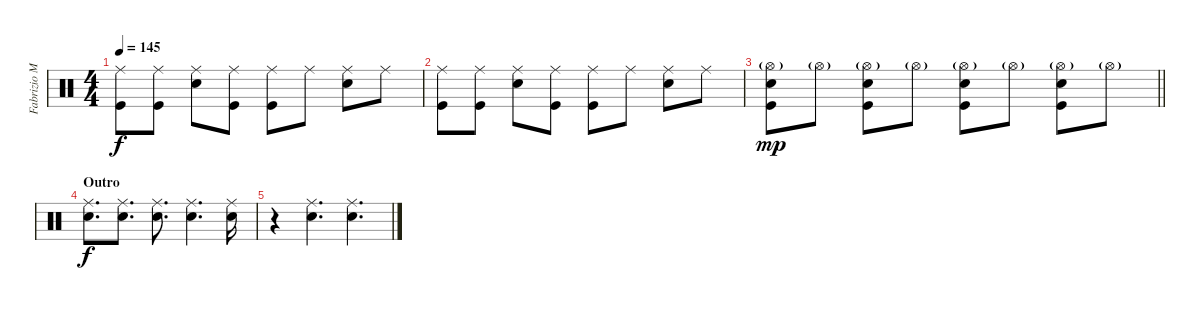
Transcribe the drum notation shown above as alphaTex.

\track ("Fabrizio Moretti" "Fabrizio M") {instrument percussion}
\staff {score}
\articulation defaults
\ts (4 4)
\tempo 145
\clef neutral
\ks c
("Ride (middle)" "Kick (hit)").8{dy f} ("Ride (middle)" "Kick (hit)").8 ("Ride (middle)" "Snare (hit) 2").8 ("Ride (middle)" "Kick (hit)").8 ("Ride (middle)" "Kick (hit)").8 "Ride (middle)".8 ("Ride (middle)" "Snare (hit) 2").8 "Ride (middle)".8 |
("Ride (middle)" "Kick (hit)").8 ("Ride (middle)" "Kick (hit)").8 ("Ride (middle)" "Snare (hit) 2").8 ("Ride (middle)" "Kick (hit)").8 ("Ride (middle)" "Kick (hit)").8 "Ride (middle)".8 ("Ride (middle)" "Snare (hit) 2").8 "Ride (middle)".8 |
\barLineRight lightlight
("Hi-Hat (open)"{g} "Snare (hit) 2" "Kick (hit)").8{dy mp} "Hi-Hat (open)"{g}.8 ("Hi-Hat (open)"{g} "Snare (hit) 2" "Kick (hit)").8 "Hi-Hat (open)"{g}.8 ("Hi-Hat (open)"{g} "Snare (hit) 2" "Kick (hit)").8 "Hi-Hat (open)"{g}.8 ("Hi-Hat (open)"{g} "Snare (hit) 2" "Kick (hit)").8 "Hi-Hat (open)"{g}.8 |
\section ("" "Outro")
("Ride (middle)" "Snare (hit) 2").8{d dy f} ("Ride (middle)" "Snare (hit) 2").8{d} ("Ride (middle)" "Snare (hit) 2").8{d} ("Ride (middle)" "Snare (hit) 2").4{d} ("Ride (middle)" "Snare (hit) 2").16 |
r.4 ("Ride (middle)" "Snare (hit) 2").4{d} ("Ride (middle)" "Snare (hit) 2").4{d}
